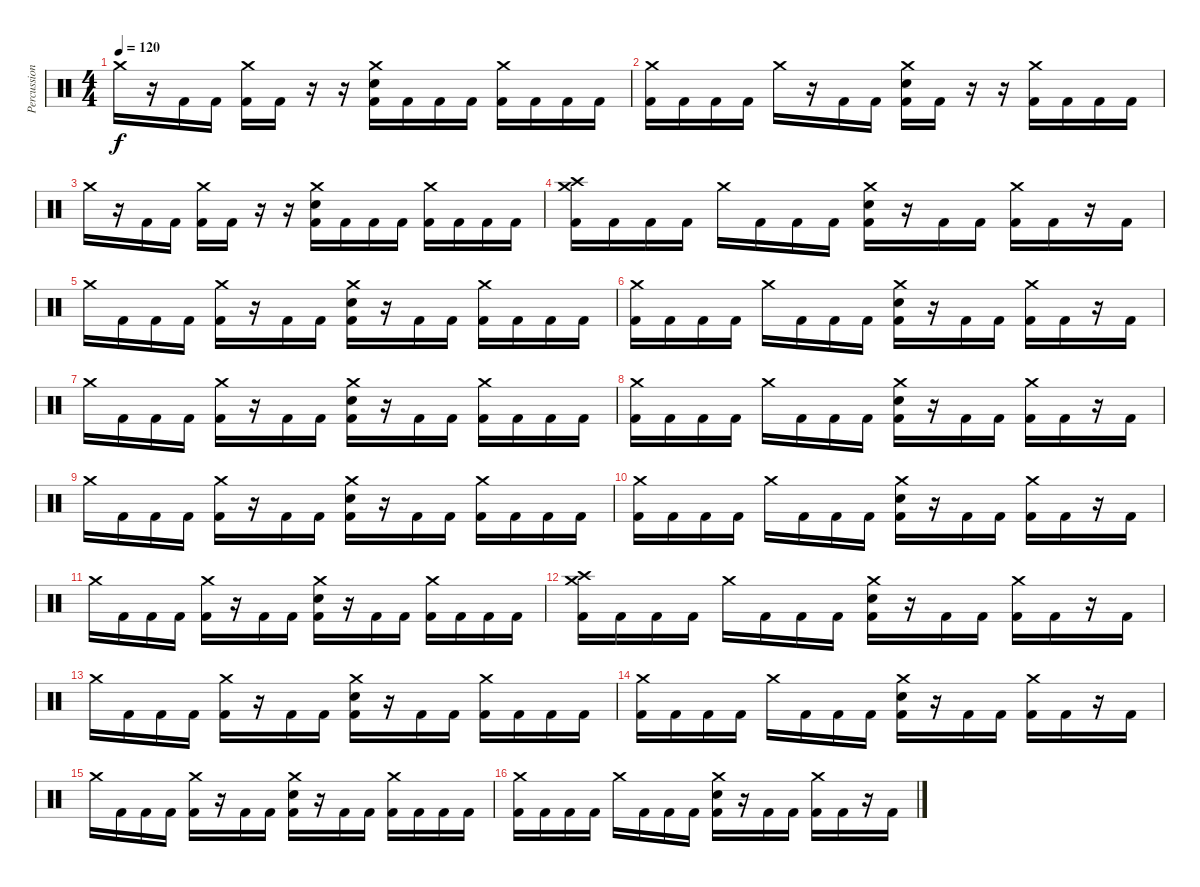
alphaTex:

\track ("Percussion" "Percussion") {instrument percussion}
\staff {score}
\articulation defaults
\ts (4 4)
\tempo 120
\clef neutral
\ks c "Crash medium (hit)".16{dy f}
r.16 "Kick (hit) 2".16 "Kick (hit) 2".16 ("Crash medium (hit)" "Kick (hit) 2").16 "Kick (hit) 2".16 r.16 r.16 ("Crash medium (hit)" "Electric Snare (hit)" "Kick (hit) 2").16 "Kick (hit) 2".16 "Kick (hit) 2".16 "Kick (hit) 2".16 ("Crash medium (hit)" "Kick (hit) 2").16 "Kick (hit) 2".16 "Kick (hit) 2".16 "Kick (hit) 2".16 |
("Crash medium (hit)" "Kick (hit) 2").16 "Kick (hit) 2".16 "Kick (hit) 2".16 "Kick (hit) 2".16 "Crash medium (hit)".16 r.16 "Kick (hit) 2".16 "Kick (hit) 2".16 ("Crash medium (hit)" "Electric Snare (hit)" "Kick (hit) 2").16 "Kick (hit) 2".16 r.16 r.16 ("Crash medium (hit)" "Kick (hit) 2").16 "Kick (hit) 2".16 "Kick (hit) 2".16 "Kick (hit) 2".16 |
"Crash medium (hit)".16 r.16 "Kick (hit) 2".16 "Kick (hit) 2".16 ("Crash medium (hit)" "Kick (hit) 2").16 "Kick (hit) 2".16 r.16 r.16 ("Crash medium (hit)" "Electric Snare (hit)" "Kick (hit) 2").16 "Kick (hit) 2".16 "Kick (hit) 2".16 "Kick (hit) 2".16 ("Crash medium (hit)" "Kick (hit) 2").16 "Kick (hit) 2".16 "Kick (hit) 2".16 "Kick (hit) 2".16 |
("Crash medium (hit)" "Crash high (hit)" "Kick (hit) 2").16 "Kick (hit) 2".16 "Kick (hit) 2".16 "Kick (hit) 2".16 "Crash medium (hit)".16 "Kick (hit) 2".16 "Kick (hit) 2".16 "Kick (hit) 2".16 ("Crash medium (hit)" "Electric Snare (hit)" "Kick (hit) 2").16 r.16 "Kick (hit) 2".16 "Kick (hit) 2".16 ("Crash medium (hit)" "Kick (hit) 2").16 "Kick (hit) 2".16 r.16 "Kick (hit) 2".16 |
"Crash medium (hit)".16 "Kick (hit) 2".16 "Kick (hit) 2".16 "Kick (hit) 2".16 ("Crash medium (hit)" "Kick (hit) 2").16 r.16 "Kick (hit) 2".16 "Kick (hit) 2".16 ("Crash medium (hit)" "Electric Snare (hit)" "Kick (hit) 2").16 r.16 "Kick (hit) 2".16 "Kick (hit) 2".16 ("Crash medium (hit)" "Kick (hit) 2").16 "Kick (hit) 2".16 "Kick (hit) 2".16 "Kick (hit) 2".16 |
("Crash medium (hit)" "Kick (hit) 2").16 "Kick (hit) 2".16 "Kick (hit) 2".16 "Kick (hit) 2".16 "Crash medium (hit)".16 "Kick (hit) 2".16 "Kick (hit) 2".16 "Kick (hit) 2".16 ("Crash medium (hit)" "Electric Snare (hit)" "Kick (hit) 2").16 r.16 "Kick (hit) 2".16 "Kick (hit) 2".16 ("Crash medium (hit)" "Kick (hit) 2").16 "Kick (hit) 2".16 r.16 "Kick (hit) 2".16 |
"Crash medium (hit)".16 "Kick (hit) 2".16 "Kick (hit) 2".16 "Kick (hit) 2".16 ("Crash medium (hit)" "Kick (hit) 2").16 r.16 "Kick (hit) 2".16 "Kick (hit) 2".16 ("Crash medium (hit)" "Electric Snare (hit)" "Kick (hit) 2").16 r.16 "Kick (hit) 2".16 "Kick (hit) 2".16 ("Crash medium (hit)" "Kick (hit) 2").16 "Kick (hit) 2".16 "Kick (hit) 2".16 "Kick (hit) 2".16 |
("Crash medium (hit)" "Kick (hit) 2").16 "Kick (hit) 2".16 "Kick (hit) 2".16 "Kick (hit) 2".16 "Crash medium (hit)".16 "Kick (hit) 2".16 "Kick (hit) 2".16 "Kick (hit) 2".16 ("Crash medium (hit)" "Electric Snare (hit)" "Kick (hit) 2").16 r.16 "Kick (hit) 2".16 "Kick (hit) 2".16 ("Crash medium (hit)" "Kick (hit) 2").16 "Kick (hit) 2".16 r.16 "Kick (hit) 2".16 |
"Crash medium (hit)".16 "Kick (hit) 2".16 "Kick (hit) 2".16 "Kick (hit) 2".16 ("Crash medium (hit)" "Kick (hit) 2").16 r.16 "Kick (hit) 2".16 "Kick (hit) 2".16 ("Crash medium (hit)" "Electric Snare (hit)" "Kick (hit) 2").16 r.16 "Kick (hit) 2".16 "Kick (hit) 2".16 ("Crash medium (hit)" "Kick (hit) 2").16 "Kick (hit) 2".16 "Kick (hit) 2".16 "Kick (hit) 2".16 |
("Crash medium (hit)" "Kick (hit) 2").16 "Kick (hit) 2".16 "Kick (hit) 2".16 "Kick (hit) 2".16 "Crash medium (hit)".16 "Kick (hit) 2".16 "Kick (hit) 2".16 "Kick (hit) 2".16 ("Crash medium (hit)" "Electric Snare (hit)" "Kick (hit) 2").16 r.16 "Kick (hit) 2".16 "Kick (hit) 2".16 ("Crash medium (hit)" "Kick (hit) 2").16 "Kick (hit) 2".16 r.16 "Kick (hit) 2".16 |
"Crash medium (hit)".16 "Kick (hit) 2".16 "Kick (hit) 2".16 "Kick (hit) 2".16 ("Crash medium (hit)" "Kick (hit) 2").16 r.16 "Kick (hit) 2".16 "Kick (hit) 2".16 ("Crash medium (hit)" "Electric Snare (hit)" "Kick (hit) 2").16 r.16 "Kick (hit) 2".16 "Kick (hit) 2".16 ("Crash medium (hit)" "Kick (hit) 2").16 "Kick (hit) 2".16 "Kick (hit) 2".16 "Kick (hit) 2".16 |
("Crash medium (hit)" "Crash high (hit)" "Kick (hit) 2").16 "Kick (hit) 2".16 "Kick (hit) 2".16 "Kick (hit) 2".16 "Crash medium (hit)".16 "Kick (hit) 2".16 "Kick (hit) 2".16 "Kick (hit) 2".16 ("Crash medium (hit)" "Electric Snare (hit)" "Kick (hit) 2").16 r.16 "Kick (hit) 2".16 "Kick (hit) 2".16 ("Crash medium (hit)" "Kick (hit) 2").16 "Kick (hit) 2".16 r.16 "Kick (hit) 2".16 |
"Crash medium (hit)".16 "Kick (hit) 2".16 "Kick (hit) 2".16 "Kick (hit) 2".16 ("Crash medium (hit)" "Kick (hit) 2").16 r.16 "Kick (hit) 2".16 "Kick (hit) 2".16 ("Crash medium (hit)" "Electric Snare (hit)" "Kick (hit) 2").16 r.16 "Kick (hit) 2".16 "Kick (hit) 2".16 ("Crash medium (hit)" "Kick (hit) 2").16 "Kick (hit) 2".16 "Kick (hit) 2".16 "Kick (hit) 2".16 |
("Crash medium (hit)" "Kick (hit) 2").16 "Kick (hit) 2".16 "Kick (hit) 2".16 "Kick (hit) 2".16 "Crash medium (hit)".16 "Kick (hit) 2".16 "Kick (hit) 2".16 "Kick (hit) 2".16 ("Crash medium (hit)" "Electric Snare (hit)" "Kick (hit) 2").16 r.16 "Kick (hit) 2".16 "Kick (hit) 2".16 ("Crash medium (hit)" "Kick (hit) 2").16 "Kick (hit) 2".16 r.16 "Kick (hit) 2".16 |
"Crash medium (hit)".16 "Kick (hit) 2".16 "Kick (hit) 2".16 "Kick (hit) 2".16 ("Crash medium (hit)" "Kick (hit) 2").16 r.16 "Kick (hit) 2".16 "Kick (hit) 2".16 ("Crash medium (hit)" "Electric Snare (hit)" "Kick (hit) 2").16 r.16 "Kick (hit) 2".16 "Kick (hit) 2".16 ("Crash medium (hit)" "Kick (hit) 2").16 "Kick (hit) 2".16 "Kick (hit) 2".16 "Kick (hit) 2".16 |
("Crash medium (hit)" "Kick (hit) 2").16 "Kick (hit) 2".16 "Kick (hit) 2".16 "Kick (hit) 2".16 "Crash medium (hit)".16 "Kick (hit) 2".16 "Kick (hit) 2".16 "Kick (hit) 2".16 ("Crash medium (hit)" "Electric Snare (hit)" "Kick (hit) 2").16 r.16 "Kick (hit) 2".16 "Kick (hit) 2".16 ("Crash medium (hit)" "Kick (hit) 2").16 "Kick (hit) 2".16 r.16 "Kick (hit) 2".16
